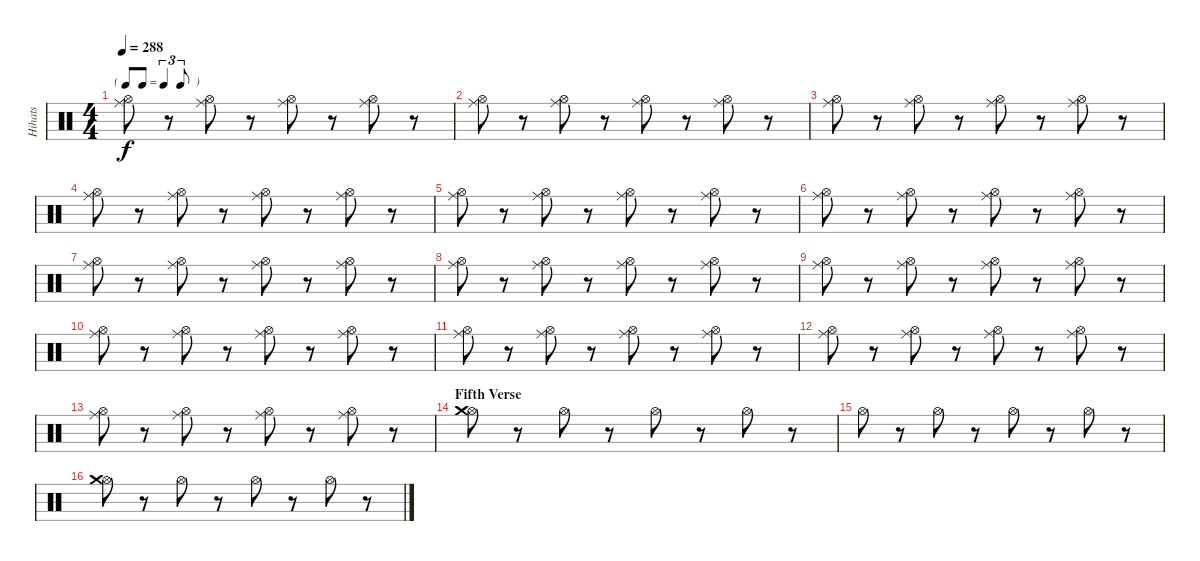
\track ("Hihats" "Hihats") {instrument percussion}
\staff {score}
\articulation defaults
\ts (4 4)
\tf triplet8th
\tempo 288
\clef neutral
\ks c
("Hi-Hat (open)" "Ride (middle)").8{dy f} r.8 ("Hi-Hat (open)" "Ride (middle)").8 r.8 ("Hi-Hat (open)" "Ride (middle)").8 r.8 ("Hi-Hat (open)" "Ride (middle)").8 r.8 |
("Hi-Hat (open)" "Ride (middle)").8 r.8 ("Hi-Hat (open)" "Ride (middle)").8 r.8 ("Hi-Hat (open)" "Ride (middle)").8 r.8 ("Hi-Hat (open)" "Ride (middle)").8 r.8 |
("Hi-Hat (open)" "Ride (middle)").8 r.8 ("Hi-Hat (open)" "Ride (middle)").8 r.8 ("Hi-Hat (open)" "Ride (middle)").8 r.8 ("Hi-Hat (open)" "Ride (middle)").8 r.8 |
("Hi-Hat (open)" "Ride (middle)").8 r.8 ("Hi-Hat (open)" "Ride (middle)").8 r.8 ("Hi-Hat (open)" "Ride (middle)").8 r.8 ("Hi-Hat (open)" "Ride (middle)").8 r.8 |
("Hi-Hat (open)" "Ride (middle)").8 r.8 ("Hi-Hat (open)" "Ride (middle)").8 r.8 ("Hi-Hat (open)" "Ride (middle)").8 r.8 ("Hi-Hat (open)" "Ride (middle)").8 r.8 |
("Hi-Hat (open)" "Ride (middle)").8 r.8 ("Hi-Hat (open)" "Ride (middle)").8 r.8 ("Hi-Hat (open)" "Ride (middle)").8 r.8 ("Hi-Hat (open)" "Ride (middle)").8 r.8 |
("Hi-Hat (open)" "Ride (middle)").8 r.8 ("Hi-Hat (open)" "Ride (middle)").8 r.8 ("Hi-Hat (open)" "Ride (middle)").8 r.8 ("Hi-Hat (open)" "Ride (middle)").8 r.8 |
("Hi-Hat (open)" "Ride (middle)").8 r.8 ("Hi-Hat (open)" "Ride (middle)").8 r.8 ("Hi-Hat (open)" "Ride (middle)").8 r.8 ("Hi-Hat (open)" "Ride (middle)").8 r.8 |
("Hi-Hat (open)" "Ride (middle)").8 r.8 ("Hi-Hat (open)" "Ride (middle)").8 r.8 ("Hi-Hat (open)" "Ride (middle)").8 r.8 ("Hi-Hat (open)" "Ride (middle)").8 r.8 |
("Hi-Hat (open)" "Ride (middle)").8 r.8 ("Hi-Hat (open)" "Ride (middle)").8 r.8 ("Hi-Hat (open)" "Ride (middle)").8 r.8 ("Hi-Hat (open)" "Ride (middle)").8 r.8 |
("Hi-Hat (open)" "Ride (middle)").8 r.8 ("Hi-Hat (open)" "Ride (middle)").8 r.8 ("Hi-Hat (open)" "Ride (middle)").8 r.8 ("Hi-Hat (open)" "Ride (middle)").8 r.8 |
("Hi-Hat (open)" "Ride (middle)").8 r.8 ("Hi-Hat (open)" "Ride (middle)").8 r.8 ("Hi-Hat (open)" "Ride (middle)").8 r.8 ("Hi-Hat (open)" "Ride (middle)").8 r.8 |
("Hi-Hat (open)" "Ride (middle)").8 r.8 ("Hi-Hat (open)" "Ride (middle)").8 r.8 ("Hi-Hat (open)" "Ride (middle)").8 r.8 ("Hi-Hat (open)" "Ride (middle)").8 r.8 |
\section ("" "Fifth Verse")
("Hi-Hat (open)" "Crash medium (hit)").8 r.8 "Hi-Hat (open)".8 r.8 "Hi-Hat (open)".8 r.8 "Hi-Hat (open)".8 r.8 |
"Hi-Hat (open)".8 r.8 "Hi-Hat (open)".8 r.8 "Hi-Hat (open)".8 r.8 "Hi-Hat (open)".8 r.8 |
("Hi-Hat (open)" "Crash medium (hit)").8 r.8 "Hi-Hat (open)".8 r.8 "Hi-Hat (open)".8 r.8 "Hi-Hat (open)".8 r.8
